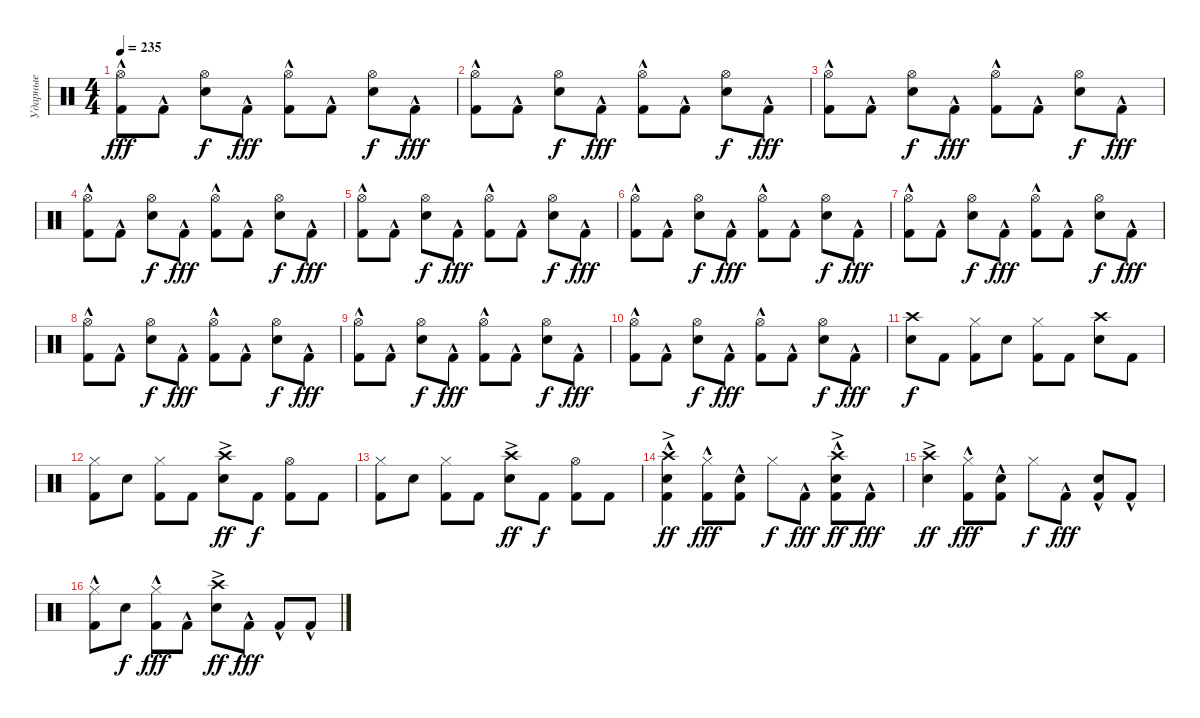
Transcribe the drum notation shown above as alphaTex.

\track ("Ударные" "Ударные") {instrument percussion}
\staff {score}
\articulation defaults
\ts (4 4)
\tempo 235
\clef neutral
\ks c
("Kick (hit) 2"{hac} "Hi-Hat (open)").8{dy fff} "Kick (hit) 2"{hac}.8 ("Snare (hit) 2" "Hi-Hat (open)").8{dy f} "Kick (hit) 2"{hac}.8{dy fff} ("Kick (hit) 2"{hac} "Hi-Hat (open)").8 "Kick (hit) 2"{hac}.8 ("Snare (hit) 2" "Hi-Hat (open)").8{dy f} "Kick (hit) 2"{hac}.8{dy fff} |
("Kick (hit) 2"{hac} "Hi-Hat (open)").8 "Kick (hit) 2"{hac}.8 ("Snare (hit) 2" "Hi-Hat (open)").8{dy f} "Kick (hit) 2"{hac}.8{dy fff} ("Kick (hit) 2"{hac} "Hi-Hat (open)").8 "Kick (hit) 2"{hac}.8 ("Snare (hit) 2" "Hi-Hat (open)").8{dy f} "Kick (hit) 2"{hac}.8{dy fff} |
("Kick (hit) 2"{hac} "Hi-Hat (open)").8 "Kick (hit) 2"{hac}.8 ("Snare (hit) 2" "Hi-Hat (open)").8{dy f} "Kick (hit) 2"{hac}.8{dy fff} ("Kick (hit) 2"{hac} "Hi-Hat (open)").8 "Kick (hit) 2"{hac}.8 ("Snare (hit) 2" "Hi-Hat (open)").8{dy f} "Kick (hit) 2"{hac}.8{dy fff} |
("Kick (hit) 2"{hac} "Hi-Hat (open)").8 "Kick (hit) 2"{hac}.8 ("Snare (hit) 2" "Hi-Hat (open)").8{dy f} "Kick (hit) 2"{hac}.8{dy fff} ("Kick (hit) 2"{hac} "Hi-Hat (open)").8 "Kick (hit) 2"{hac}.8 ("Snare (hit) 2" "Hi-Hat (open)").8{dy f} "Kick (hit) 2"{hac}.8{dy fff} |
("Kick (hit) 2"{hac} "Hi-Hat (open)").8 "Kick (hit) 2"{hac}.8 ("Snare (hit) 2" "Hi-Hat (open)").8{dy f} "Kick (hit) 2"{hac}.8{dy fff} ("Kick (hit) 2"{hac} "Hi-Hat (open)").8 "Kick (hit) 2"{hac}.8 ("Snare (hit) 2" "Hi-Hat (open)").8{dy f} "Kick (hit) 2"{hac}.8{dy fff} |
("Kick (hit) 2"{hac} "Hi-Hat (open)").8 "Kick (hit) 2"{hac}.8 ("Snare (hit) 2" "Hi-Hat (open)").8{dy f} "Kick (hit) 2"{hac}.8{dy fff} ("Kick (hit) 2"{hac} "Hi-Hat (open)").8 "Kick (hit) 2"{hac}.8 ("Snare (hit) 2" "Hi-Hat (open)").8{dy f} "Kick (hit) 2"{hac}.8{dy fff} |
("Kick (hit) 2"{hac} "Hi-Hat (open)").8 "Kick (hit) 2"{hac}.8 ("Snare (hit) 2" "Hi-Hat (open)").8{dy f} "Kick (hit) 2"{hac}.8{dy fff} ("Kick (hit) 2"{hac} "Hi-Hat (open)").8 "Kick (hit) 2"{hac}.8 ("Snare (hit) 2" "Hi-Hat (open)").8{dy f} "Kick (hit) 2"{hac}.8{dy fff} |
("Kick (hit) 2"{hac} "Hi-Hat (open)").8 "Kick (hit) 2"{hac}.8 ("Snare (hit) 2" "Hi-Hat (open)").8{dy f} "Kick (hit) 2"{hac}.8{dy fff} ("Kick (hit) 2"{hac} "Hi-Hat (open)").8 "Kick (hit) 2"{hac}.8 ("Snare (hit) 2" "Hi-Hat (open)").8{dy f} "Kick (hit) 2"{hac}.8{dy fff} |
("Kick (hit) 2"{hac} "Hi-Hat (open)").8 "Kick (hit) 2"{hac}.8 ("Snare (hit) 2" "Hi-Hat (open)").8{dy f} "Kick (hit) 2"{hac}.8{dy fff} ("Kick (hit) 2"{hac} "Hi-Hat (open)").8 "Kick (hit) 2"{hac}.8 ("Snare (hit) 2" "Hi-Hat (open)").8{dy f} "Kick (hit) 2"{hac}.8{dy fff} |
("Kick (hit) 2"{hac} "Hi-Hat (open)").8 "Kick (hit) 2"{hac}.8 ("Snare (hit) 2" "Hi-Hat (open)").8{dy f} "Kick (hit) 2"{hac}.8{dy fff} ("Kick (hit) 2"{hac} "Hi-Hat (open)").8 "Kick (hit) 2"{hac}.8 ("Snare (hit) 2" "Hi-Hat (open)").8{dy f} "Kick (hit) 2"{hac}.8{dy fff} |
("Snare (hit) 2" "Crash high (hit)").8{dy f} "Kick (hit) 2".8 ("Kick (hit) 2" "Hi-Hat (closed)").8 "Snare (hit) 2".8 ("Kick (hit) 2" "Hi-Hat (closed)").8 "Kick (hit) 2".8 ("Snare (hit) 2" "Crash high (hit)").8 "Kick (hit) 2".8 |
("Kick (hit) 2" "Hi-Hat (closed)").8 "Snare (hit) 2".8 ("Kick (hit) 2" "Hi-Hat (closed)").8 "Kick (hit) 2".8 ("Snare (hit) 2" "Crash high (hit)"{ac}).8{dy ff} "Kick (hit) 2".8{dy f} ("Kick (hit) 2" "Hi-Hat (open)").8 "Kick (hit) 2".8 |
("Kick (hit) 2" "Hi-Hat (closed)").8 "Snare (hit) 2".8 ("Kick (hit) 2" "Hi-Hat (closed)").8 "Kick (hit) 2".8 ("Snare (hit) 2" "Crash high (hit)"{ac}).8{dy ff} "Kick (hit) 2".8{dy f} ("Kick (hit) 2" "Hi-Hat (open)").8 "Kick (hit) 2".8 |
("Kick (hit) 2"{hac} "Snare (hit) 2" "Crash high (hit)"{ac}).4{dy ff} ("Kick (hit) 2"{hac} "Hi-Hat (closed)").8{dy fff} ("Kick (hit) 2"{hac} "Snare (hit) 2").8 "Hi-Hat (closed)".8{dy f} "Kick (hit) 2"{hac}.8{dy fff} ("Kick (hit) 2"{hac} "Snare (hit) 2" "Crash high (hit)"{ac}).8{dy ff} "Kick (hit) 2"{hac}.8{dy fff} |
("Snare (hit) 2" "Crash high (hit)"{ac}).4{dy ff} ("Kick (hit) 2"{hac} "Hi-Hat (closed)").8{dy fff} ("Kick (hit) 2"{hac} "Snare (hit) 2").8 "Hi-Hat (closed)".8{dy f} "Kick (hit) 2"{hac}.8{dy fff} ("Kick (hit) 2"{hac} "Snare (hit) 2").8 "Kick (hit) 2"{hac}.8 |
("Kick (hit) 2"{hac} "Hi-Hat (closed)").8 "Snare (hit) 2".8{dy f} ("Kick (hit) 2"{hac} "Hi-Hat (closed)").8{dy fff} "Kick (hit) 2"{hac}.8 ("Snare (hit) 2" "Crash high (hit)"{ac}).8{dy ff} "Kick (hit) 2"{hac}.8{dy fff} "Kick (hit) 2"{hac}.8 "Kick (hit) 2"{hac}.8
